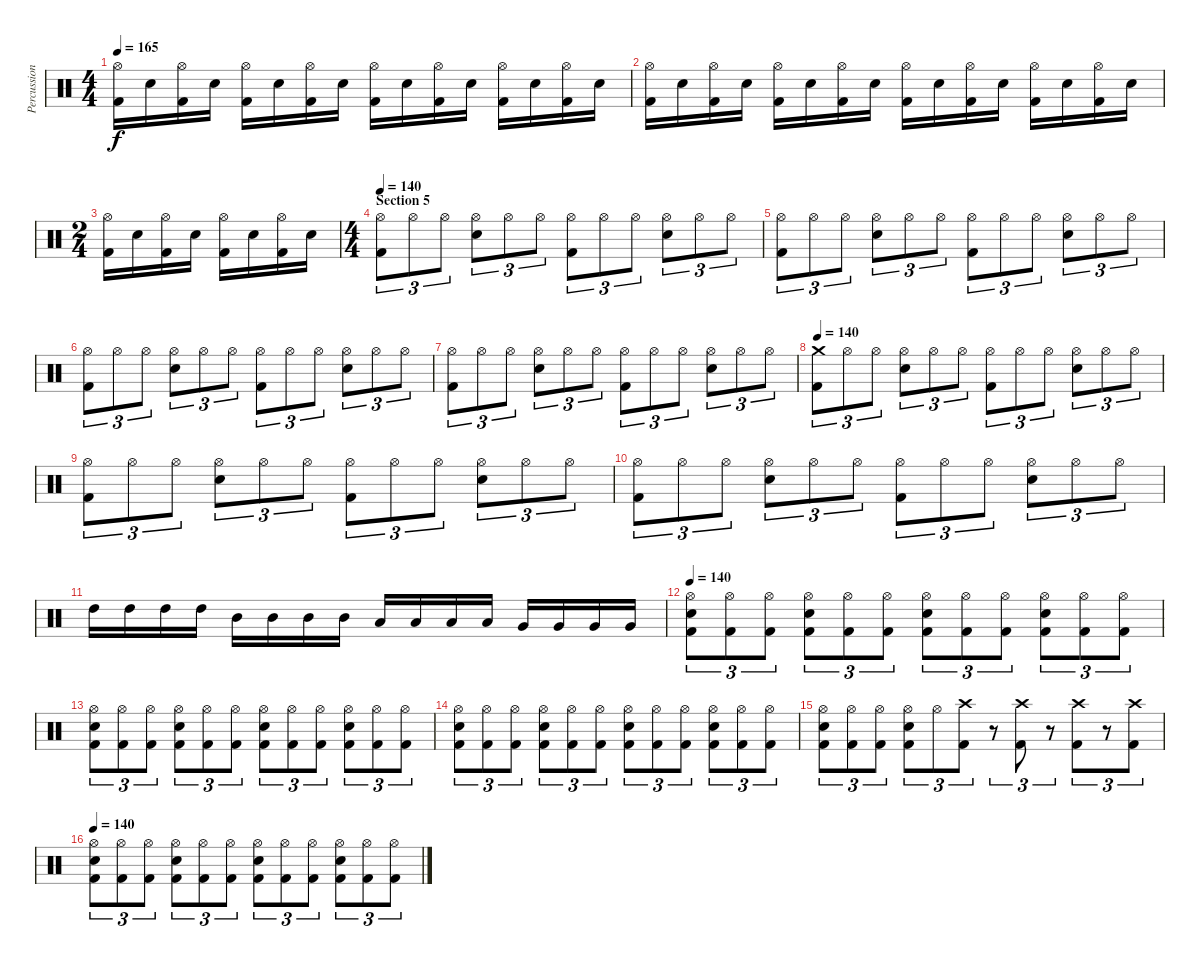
\track ("Percussion" "Percussion") {instrument percussion}
\staff {score}
\articulation defaults
\ts (4 4)
\tempo 165
\clef neutral
\ks c
("Hi-Hat (open)" "Kick (hit) 2").16{dy f} "Electric Snare (hit)".16 ("Hi-Hat (open)" "Kick (hit) 2").16 "Electric Snare (hit)".16 ("Hi-Hat (open)" "Kick (hit) 2").16 "Electric Snare (hit)".16 ("Hi-Hat (open)" "Kick (hit) 2").16 "Electric Snare (hit)".16 ("Hi-Hat (open)" "Kick (hit) 2").16 "Electric Snare (hit)".16 ("Hi-Hat (open)" "Kick (hit) 2").16 "Electric Snare (hit)".16 ("Hi-Hat (open)" "Kick (hit) 2").16 "Electric Snare (hit)".16 ("Hi-Hat (open)" "Kick (hit) 2").16 "Electric Snare (hit)".16 |
("Hi-Hat (open)" "Kick (hit) 2").16 "Electric Snare (hit)".16 ("Hi-Hat (open)" "Kick (hit) 2").16 "Electric Snare (hit)".16 ("Hi-Hat (open)" "Kick (hit) 2").16 "Electric Snare (hit)".16 ("Hi-Hat (open)" "Kick (hit) 2").16 "Electric Snare (hit)".16 ("Hi-Hat (open)" "Kick (hit) 2").16 "Electric Snare (hit)".16 ("Hi-Hat (open)" "Kick (hit) 2").16 "Electric Snare (hit)".16 ("Hi-Hat (open)" "Kick (hit) 2").16 "Electric Snare (hit)".16 ("Hi-Hat (open)" "Kick (hit) 2").16 "Electric Snare (hit)".16 |
\ts (2 4)
("Hi-Hat (open)" "Kick (hit) 2").16 "Electric Snare (hit)".16 ("Hi-Hat (open)" "Kick (hit) 2").16 "Electric Snare (hit)".16 ("Hi-Hat (open)" "Kick (hit) 2").16 "Electric Snare (hit)".16 ("Hi-Hat (open)" "Kick (hit) 2").16 "Electric Snare (hit)".16 |
\ts (4 4)
\section ("" "Section 5")
\tempo 140
("Hi-Hat (open)" "Kick (hit) 2").8{tu (3 2)} "Hi-Hat (open)".8{tu (3 2)} "Hi-Hat (open)".8{tu (3 2)} ("Hi-Hat (open)" "Electric Snare (hit)").8{tu (3 2)} "Hi-Hat (open)".8{tu (3 2)} "Hi-Hat (open)".8{tu (3 2)} ("Hi-Hat (open)" "Kick (hit) 2").8{tu (3 2)} "Hi-Hat (open)".8{tu (3 2)} "Hi-Hat (open)".8{tu (3 2)} ("Hi-Hat (open)" "Electric Snare (hit)").8{tu (3 2)} "Hi-Hat (open)".8{tu (3 2)} "Hi-Hat (open)".8{tu (3 2)} |
("Hi-Hat (open)" "Kick (hit) 2").8{tu (3 2)} "Hi-Hat (open)".8{tu (3 2)} "Hi-Hat (open)".8{tu (3 2)} ("Hi-Hat (open)" "Electric Snare (hit)").8{tu (3 2)} "Hi-Hat (open)".8{tu (3 2)} "Hi-Hat (open)".8{tu (3 2)} ("Hi-Hat (open)" "Kick (hit) 2").8{tu (3 2)} "Hi-Hat (open)".8{tu (3 2)} "Hi-Hat (open)".8{tu (3 2)} ("Hi-Hat (open)" "Electric Snare (hit)").8{tu (3 2)} "Hi-Hat (open)".8{tu (3 2)} "Hi-Hat (open)".8{tu (3 2)} |
("Hi-Hat (open)" "Kick (hit) 2").8{tu (3 2)} "Hi-Hat (open)".8{tu (3 2)} "Hi-Hat (open)".8{tu (3 2)} ("Hi-Hat (open)" "Electric Snare (hit)").8{tu (3 2)} "Hi-Hat (open)".8{tu (3 2)} "Hi-Hat (open)".8{tu (3 2)} ("Hi-Hat (open)" "Kick (hit) 2").8{tu (3 2)} "Hi-Hat (open)".8{tu (3 2)} "Hi-Hat (open)".8{tu (3 2)} ("Hi-Hat (open)" "Electric Snare (hit)").8{tu (3 2)} "Hi-Hat (open)".8{tu (3 2)} "Hi-Hat (open)".8{tu (3 2)} |
("Hi-Hat (open)" "Kick (hit) 2").8{tu (3 2)} "Hi-Hat (open)".8{tu (3 2)} "Hi-Hat (open)".8{tu (3 2)} ("Hi-Hat (open)" "Electric Snare (hit)").8{tu (3 2)} "Hi-Hat (open)".8{tu (3 2)} "Hi-Hat (open)".8{tu (3 2)} ("Hi-Hat (open)" "Kick (hit) 2").8{tu (3 2)} "Hi-Hat (open)".8{tu (3 2)} "Hi-Hat (open)".8{tu (3 2)} ("Hi-Hat (open)" "Electric Snare (hit)").8{tu (3 2)} "Hi-Hat (open)".8{tu (3 2)} "Hi-Hat (open)".8{tu (3 2)} |
\tempo 140
("Crash medium (hit)" "Kick (hit) 2").8{tu (3 2)} "Hi-Hat (open)".8{tu (3 2)} "Hi-Hat (open)".8{tu (3 2)} ("Hi-Hat (open)" "Electric Snare (hit)").8{tu (3 2)} "Hi-Hat (open)".8{tu (3 2)} "Hi-Hat (open)".8{tu (3 2)} ("Hi-Hat (open)" "Kick (hit) 2").8{tu (3 2)} "Hi-Hat (open)".8{tu (3 2)} "Hi-Hat (open)".8{tu (3 2)} ("Hi-Hat (open)" "Electric Snare (hit)").8{tu (3 2)} "Hi-Hat (open)".8{tu (3 2)} "Hi-Hat (open)".8{tu (3 2)} |
("Hi-Hat (open)" "Kick (hit) 2").8{tu (3 2)} "Hi-Hat (open)".8{tu (3 2)} "Hi-Hat (open)".8{tu (3 2)} ("Hi-Hat (open)" "Electric Snare (hit)").8{tu (3 2)} "Hi-Hat (open)".8{tu (3 2)} "Hi-Hat (open)".8{tu (3 2)} ("Hi-Hat (open)" "Kick (hit) 2").8{tu (3 2)} "Hi-Hat (open)".8{tu (3 2)} "Hi-Hat (open)".8{tu (3 2)} ("Hi-Hat (open)" "Electric Snare (hit)").8{tu (3 2)} "Hi-Hat (open)".8{tu (3 2)} "Hi-Hat (open)".8{tu (3 2)} |
("Hi-Hat (open)" "Kick (hit) 2").8{tu (3 2)} "Hi-Hat (open)".8{tu (3 2)} "Hi-Hat (open)".8{tu (3 2)} ("Hi-Hat (open)" "Electric Snare (hit)").8{tu (3 2)} "Hi-Hat (open)".8{tu (3 2)} "Hi-Hat (open)".8{tu (3 2)} ("Hi-Hat (open)" "Kick (hit) 2").8{tu (3 2)} "Hi-Hat (open)".8{tu (3 2)} "Hi-Hat (open)".8{tu (3 2)} ("Hi-Hat (open)" "Electric Snare (hit)").8{tu (3 2)} "Hi-Hat (open)".8{tu (3 2)} "Hi-Hat (open)".8{tu (3 2)} |
"High Tom (hit)".16 "High Tom (hit)".16 "High Tom (hit)".16 "High Tom (hit)".16 "Mid Tom (hit)".16 "Mid Tom (hit)".16 "Mid Tom (hit)".16 "Mid Tom (hit)".16 "Low Tom (hit)".16 "Low Tom (hit)".16 "Low Tom (hit)".16 "Low Tom (hit)".16 "Very Low Tom (hit)".16 "Very Low Tom (hit)".16 "Very Low Tom (hit)".16 "Very Low Tom (hit)".16 |
\tempo 140
("Hi-Hat (open)" "Electric Snare (hit)" "Kick (hit) 2").8{tu (3 2)} ("Hi-Hat (open)" "Kick (hit) 2").8{tu (3 2)} ("Hi-Hat (open)" "Kick (hit) 2").8{tu (3 2)} ("Hi-Hat (open)" "Electric Snare (hit)" "Kick (hit) 2").8{tu (3 2)} ("Hi-Hat (open)" "Kick (hit) 2").8{tu (3 2)} ("Hi-Hat (open)" "Kick (hit) 2").8{tu (3 2)} ("Hi-Hat (open)" "Electric Snare (hit)" "Kick (hit) 2").8{tu (3 2)} ("Hi-Hat (open)" "Kick (hit) 2").8{tu (3 2)} ("Hi-Hat (open)" "Kick (hit) 2").8{tu (3 2)} ("Hi-Hat (open)" "Electric Snare (hit)" "Kick (hit) 2").8{tu (3 2)} ("Hi-Hat (open)" "Kick (hit) 2").8{tu (3 2)} ("Hi-Hat (open)" "Kick (hit) 2").8{tu (3 2)} |
("Hi-Hat (open)" "Electric Snare (hit)" "Kick (hit) 2").8{tu (3 2)} ("Hi-Hat (open)" "Kick (hit) 2").8{tu (3 2)} ("Hi-Hat (open)" "Kick (hit) 2").8{tu (3 2)} ("Hi-Hat (open)" "Electric Snare (hit)" "Kick (hit) 2").8{tu (3 2)} ("Hi-Hat (open)" "Kick (hit) 2").8{tu (3 2)} ("Hi-Hat (open)" "Kick (hit) 2").8{tu (3 2)} ("Hi-Hat (open)" "Electric Snare (hit)" "Kick (hit) 2").8{tu (3 2)} ("Hi-Hat (open)" "Kick (hit) 2").8{tu (3 2)} ("Hi-Hat (open)" "Kick (hit) 2").8{tu (3 2)} ("Hi-Hat (open)" "Electric Snare (hit)" "Kick (hit) 2").8{tu (3 2)} ("Hi-Hat (open)" "Kick (hit) 2").8{tu (3 2)} ("Hi-Hat (open)" "Kick (hit) 2").8{tu (3 2)} |
("Hi-Hat (open)" "Electric Snare (hit)" "Kick (hit) 2").8{tu (3 2)} ("Hi-Hat (open)" "Kick (hit) 2").8{tu (3 2)} ("Hi-Hat (open)" "Kick (hit) 2").8{tu (3 2)} ("Hi-Hat (open)" "Electric Snare (hit)" "Kick (hit) 2").8{tu (3 2)} ("Hi-Hat (open)" "Kick (hit) 2").8{tu (3 2)} ("Hi-Hat (open)" "Kick (hit) 2").8{tu (3 2)} ("Hi-Hat (open)" "Electric Snare (hit)" "Kick (hit) 2").8{tu (3 2)} ("Hi-Hat (open)" "Kick (hit) 2").8{tu (3 2)} ("Hi-Hat (open)" "Kick (hit) 2").8{tu (3 2)} ("Hi-Hat (open)" "Electric Snare (hit)" "Kick (hit) 2").8{tu (3 2)} ("Hi-Hat (open)" "Kick (hit) 2").8{tu (3 2)} ("Hi-Hat (open)" "Kick (hit) 2").8{tu (3 2)} |
("Hi-Hat (open)" "Electric Snare (hit)" "Kick (hit) 2").8{tu (3 2)} ("Hi-Hat (open)" "Kick (hit) 2").8{tu (3 2)} ("Hi-Hat (open)" "Kick (hit) 2").8{tu (3 2)} ("Hi-Hat (open)" "Electric Snare (hit)" "Kick (hit) 2").8{tu (3 2)} "Hi-Hat (open)".8{tu (3 2)} ("Crash high (hit)" "Kick (hit) 2").8{tu (3 2)} r.8{tu (3 2)} ("Crash high (hit)" "Kick (hit) 2").8{tu (3 2)} r.8{tu (3 2)} ("Crash high (hit)" "Kick (hit) 2").8{tu (3 2)} r.8{tu (3 2)} ("Crash high (hit)" "Kick (hit) 2").8{tu (3 2)} |
\tempo 140
("Hi-Hat (open)" "Electric Snare (hit)" "Kick (hit) 2").8{tu (3 2)} ("Hi-Hat (open)" "Kick (hit) 2").8{tu (3 2)} ("Hi-Hat (open)" "Kick (hit) 2").8{tu (3 2)} ("Hi-Hat (open)" "Electric Snare (hit)" "Kick (hit) 2").8{tu (3 2)} ("Hi-Hat (open)" "Kick (hit) 2").8{tu (3 2)} ("Hi-Hat (open)" "Kick (hit) 2").8{tu (3 2)} ("Hi-Hat (open)" "Electric Snare (hit)" "Kick (hit) 2").8{tu (3 2)} ("Hi-Hat (open)" "Kick (hit) 2").8{tu (3 2)} ("Hi-Hat (open)" "Kick (hit) 2").8{tu (3 2)} ("Hi-Hat (open)" "Electric Snare (hit)" "Kick (hit) 2").8{tu (3 2)} ("Hi-Hat (open)" "Kick (hit) 2").8{tu (3 2)} ("Hi-Hat (open)" "Kick (hit) 2").8{tu (3 2)}
